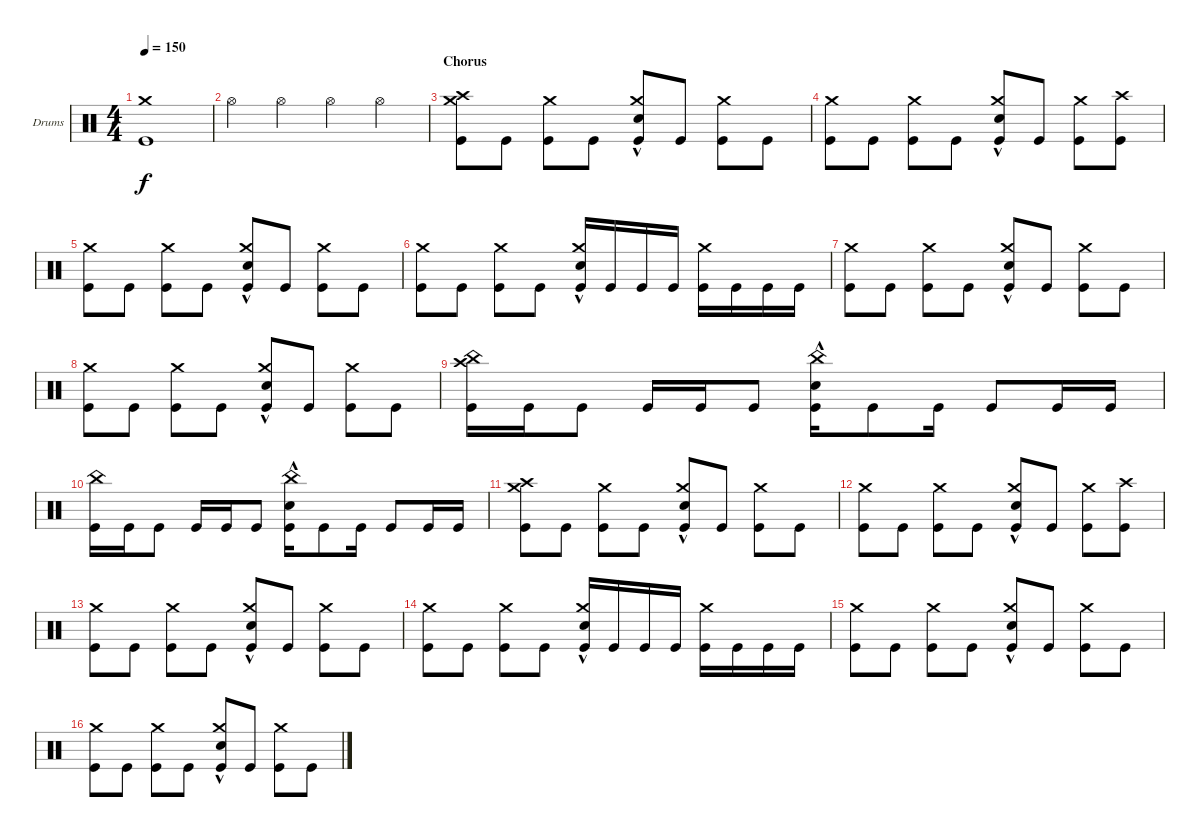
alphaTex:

\bracketExtendMode groupsimilarinstruments
\firstSystemTrackNameOrientation horizontal
\otherSystemsTrackNameOrientation horizontal
\track ("Drumkit" "Drums") {instrument percussion}
\staff {score}
\articulation defaults
\ts (4 4)
\tempo 150
\clef neutral
\ks aminor
("Kick (hit)" "Crash medium (hit)").1{dy f} |
"Hi-Hat (open)".4 "Hi-Hat (open)".4 "Hi-Hat (open)".4 "Hi-Hat (open)".4 |
\section ("" "Chorus")
("Kick (hit)" "Crash medium (hit)" "Crash high (hit)").8 "Kick (hit)".8 ("Kick (hit)" "Crash medium (hit)").8 "Kick (hit)".8 ("Kick (hit)" "Crash medium (hit)" "Snare (hit) 2"{hac}).8 "Kick (hit)".8 ("Kick (hit)" "Crash medium (hit)").8 "Kick (hit)".8 |
("Kick (hit)" "Crash medium (hit)").8 "Kick (hit)".8 ("Kick (hit)" "Crash medium (hit)").8 "Kick (hit)".8 ("Kick (hit)" "Crash medium (hit)" "Snare (hit) 2"{hac}).8 "Kick (hit)".8 ("Kick (hit)" "Crash medium (hit)").8 ("Kick (hit)" "Crash high (hit)").8 |
("Kick (hit)" "Crash medium (hit)").8 "Kick (hit)".8 ("Kick (hit)" "Crash medium (hit)").8 "Kick (hit)".8 ("Kick (hit)" "Crash medium (hit)" "Snare (hit) 2"{hac}).8 "Kick (hit)".8 ("Kick (hit)" "Crash medium (hit)").8 "Kick (hit)".8 |
("Kick (hit)" "Crash medium (hit)").8 "Kick (hit)".8 ("Kick (hit)" "Crash medium (hit)").8 "Kick (hit)".8 ("Kick (hit)" "Crash medium (hit)" "Snare (hit) 2"{hac}).16 "Kick (hit)".16 "Kick (hit)".16 "Kick (hit)".16 ("Kick (hit)" "Crash medium (hit)").16 "Kick (hit)".16 "Kick (hit)".16 "Kick (hit)".16 |
("Kick (hit)" "Crash medium (hit)").8 "Kick (hit)".8 ("Kick (hit)" "Crash medium (hit)").8 "Kick (hit)".8 ("Kick (hit)" "Crash medium (hit)" "Snare (hit) 2"{hac}).8 "Kick (hit)".8 ("Kick (hit)" "Crash medium (hit)").8 "Kick (hit)".8 |
("Kick (hit)" "Crash medium (hit)").8 "Kick (hit)".8 ("Kick (hit)" "Crash medium (hit)").8 "Kick (hit)".8 ("Kick (hit)" "Crash medium (hit)" "Snare (hit) 2"{hac}).8 "Kick (hit)".8 ("Kick (hit)" "Crash medium (hit)").8 "Kick (hit)".8 |
("Kick (hit)" "China (hit)" "Crash high (hit)").16 "Kick (hit)".16 "Kick (hit)".8 "Kick (hit)".16 "Kick (hit)".16 "Kick (hit)".8 ("Kick (hit)" "China (hit)" "Snare (hit) 2"{hac}).16 "Kick (hit)".8 "Kick (hit)".16 "Kick (hit)".8 "Kick (hit)".16 "Kick (hit)".16 |
("Kick (hit)" "China (hit)").16 "Kick (hit)".16 "Kick (hit)".8 "Kick (hit)".16 "Kick (hit)".16 "Kick (hit)".8 ("Kick (hit)" "China (hit)" "Snare (hit) 2"{hac}).16 "Kick (hit)".8 "Kick (hit)".16 "Kick (hit)".8 "Kick (hit)".16 "Kick (hit)".16 |
("Kick (hit)" "Crash medium (hit)" "Crash high (hit)").8 "Kick (hit)".8 ("Kick (hit)" "Crash medium (hit)").8 "Kick (hit)".8 ("Kick (hit)" "Crash medium (hit)" "Snare (hit) 2"{hac}).8 "Kick (hit)".8 ("Kick (hit)" "Crash medium (hit)").8 "Kick (hit)".8 |
("Kick (hit)" "Crash medium (hit)").8 "Kick (hit)".8 ("Kick (hit)" "Crash medium (hit)").8 "Kick (hit)".8 ("Kick (hit)" "Crash medium (hit)" "Snare (hit) 2"{hac}).8 "Kick (hit)".8 ("Kick (hit)" "Crash medium (hit)").8 ("Kick (hit)" "Crash high (hit)").8 |
("Kick (hit)" "Crash medium (hit)").8 "Kick (hit)".8 ("Kick (hit)" "Crash medium (hit)").8 "Kick (hit)".8 ("Kick (hit)" "Crash medium (hit)" "Snare (hit) 2"{hac}).8 "Kick (hit)".8 ("Kick (hit)" "Crash medium (hit)").8 "Kick (hit)".8 |
("Kick (hit)" "Crash medium (hit)").8 "Kick (hit)".8 ("Kick (hit)" "Crash medium (hit)").8 "Kick (hit)".8 ("Kick (hit)" "Crash medium (hit)" "Snare (hit) 2"{hac}).16 "Kick (hit)".16 "Kick (hit)".16 "Kick (hit)".16 ("Kick (hit)" "Crash medium (hit)").16 "Kick (hit)".16 "Kick (hit)".16 "Kick (hit)".16 |
("Kick (hit)" "Crash medium (hit)").8 "Kick (hit)".8 ("Kick (hit)" "Crash medium (hit)").8 "Kick (hit)".8 ("Kick (hit)" "Crash medium (hit)" "Snare (hit) 2"{hac}).8 "Kick (hit)".8 ("Kick (hit)" "Crash medium (hit)").8 "Kick (hit)".8 |
("Kick (hit)" "Crash medium (hit)").8 "Kick (hit)".8 ("Kick (hit)" "Crash medium (hit)").8 "Kick (hit)".8 ("Kick (hit)" "Crash medium (hit)" "Snare (hit) 2"{hac}).8 "Kick (hit)".8 ("Kick (hit)" "Crash medium (hit)").8 "Kick (hit)".8
